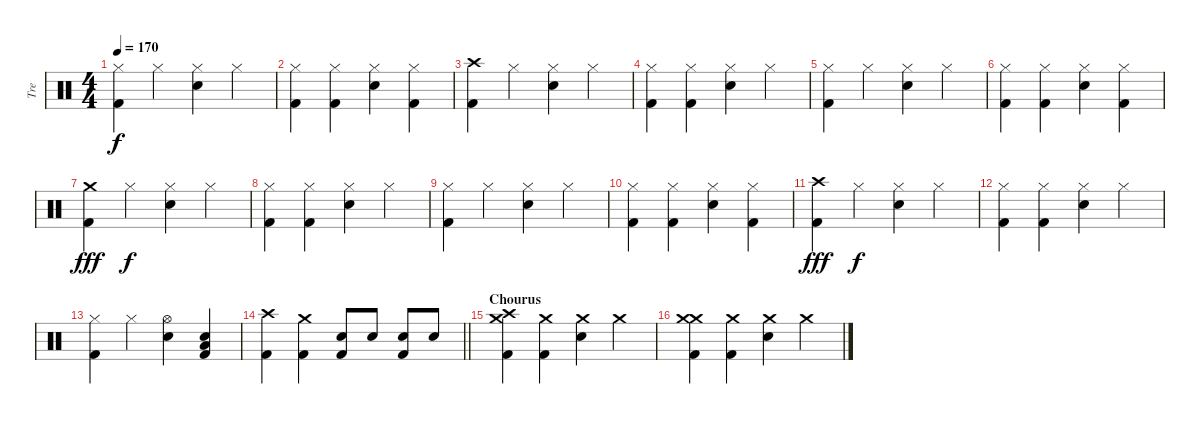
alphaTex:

\track ("Tre" "Tre") {instrument percussion}
\staff {score}
\articulation defaults
\ts (4 4)
\tempo 170
\clef neutral
\ks c
("Hi-Hat (closed)" "Kick (hit) 2").4{dy f} "Hi-Hat (closed)".4 ("Hi-Hat (closed)" "Snare (hit) 2").4 "Hi-Hat (closed)".4 |
("Hi-Hat (closed)" "Kick (hit) 2").4 ("Hi-Hat (closed)" "Kick (hit) 2").4 ("Hi-Hat (closed)" "Snare (hit) 2").4 ("Hi-Hat (closed)" "Kick (hit) 2").4 |
("Crash high (hit)" "Kick (hit) 2").4 "Hi-Hat (closed)".4 ("Hi-Hat (closed)" "Snare (hit) 2").4 "Hi-Hat (closed)".4 |
("Hi-Hat (closed)" "Kick (hit) 2").4 ("Hi-Hat (closed)" "Kick (hit) 2").4 ("Hi-Hat (closed)" "Snare (hit) 2").4 "Hi-Hat (closed)".4 |
("Hi-Hat (closed)" "Kick (hit) 2").4 "Hi-Hat (closed)".4 ("Hi-Hat (closed)" "Snare (hit) 2").4 "Hi-Hat (closed)".4 |
("Hi-Hat (closed)" "Kick (hit) 2").4 ("Hi-Hat (closed)" "Kick (hit) 2").4 ("Hi-Hat (closed)" "Snare (hit) 2").4 ("Hi-Hat (closed)" "Kick (hit) 2").4 |
("Crash medium (hit)" "Kick (hit) 2").4{dy fff} "Hi-Hat (closed)".4{dy f} ("Hi-Hat (closed)" "Snare (hit) 2").4 "Hi-Hat (closed)".4 |
("Hi-Hat (closed)" "Kick (hit) 2").4 ("Hi-Hat (closed)" "Kick (hit) 2").4 ("Hi-Hat (closed)" "Snare (hit) 2").4 "Hi-Hat (closed)".4 |
("Hi-Hat (closed)" "Kick (hit) 2").4 "Hi-Hat (closed)".4 ("Hi-Hat (closed)" "Snare (hit) 2").4 "Hi-Hat (closed)".4 |
("Hi-Hat (closed)" "Kick (hit) 2").4 ("Hi-Hat (closed)" "Kick (hit) 2").4 ("Hi-Hat (closed)" "Snare (hit) 2").4 ("Hi-Hat (closed)" "Kick (hit) 2").4 |
("Crash high (hit)" "Kick (hit) 2").4{dy fff} "Hi-Hat (closed)".4{dy f} ("Hi-Hat (closed)" "Snare (hit) 2").4 "Hi-Hat (closed)".4 |
("Hi-Hat (closed)" "Kick (hit) 2").4 ("Hi-Hat (closed)" "Kick (hit) 2").4 ("Hi-Hat (closed)" "Snare (hit) 2").4 "Hi-Hat (closed)".4 |
("Hi-Hat (closed)" "Kick (hit) 2").4 "Hi-Hat (closed)".4 ("Hi-Hat (open)" "Snare (hit) 2").4 ("Snare (hit) 2" "Low Floor Tom (hit)" "Kick (hit) 2").4 |
\barLineRight lightlight
("Crash high (hit)" "Kick (hit) 2").4 ("Crash medium (hit)" "Kick (hit) 2").4 ("Snare (hit) 2" "Kick (hit) 2").8 "Snare (hit) 2".8 ("Snare (hit) 2" "Kick (hit) 2").8 "Snare (hit) 2".8 |
\section ("" "Chourus")
("Crash medium (hit)" "Crash high (hit)" "Kick (hit) 2").4 ("Crash medium (hit)" "Kick (hit) 2").4 ("Crash medium (hit)" "Snare (hit) 2").4 "Crash medium (hit)".4 |
("Crash medium (hit)" "Crash medium (hit)" "Kick (hit) 2").4 ("Crash medium (hit)" "Kick (hit) 2").4 ("Crash medium (hit)" "Snare (hit) 2").4 "Crash medium (hit)".4
